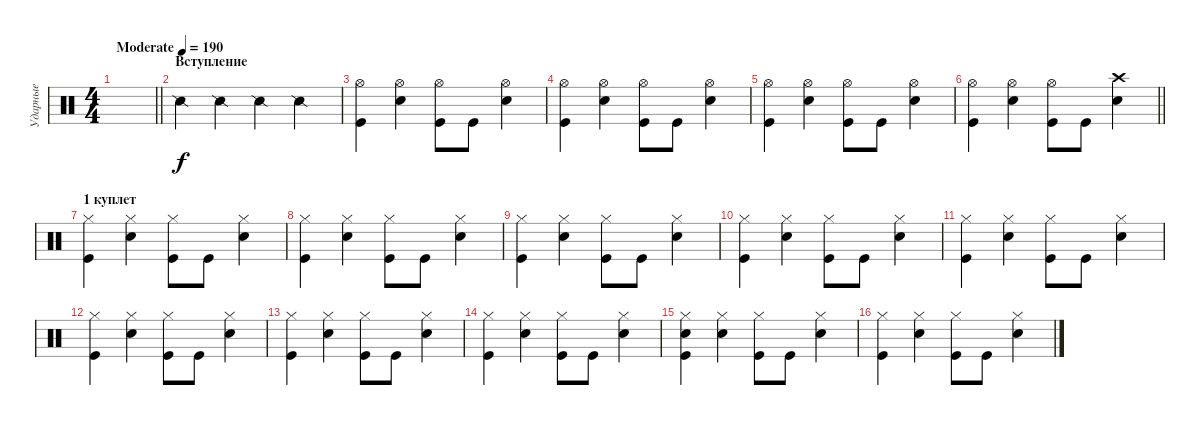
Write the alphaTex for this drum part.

\track ("Ударные" "Ударные") {instrument percussion}
\staff {score}
\articulation defaults
\ts (4 4)
\tempo (190 "Moderate")
\clef neutral
\barLineRight lightlight
\ks c
|
\section ("" "Вступление")
"Snare (side stick) 2".4 "Snare (side stick) 2".4 "Snare (side stick) 2".4 "Snare (side stick) 2".4 |
("Hi-Hat (open)" "Kick (hit)").4 ("Hi-Hat (open)" "Snare (hit) 2").4 ("Hi-Hat (open)" "Kick (hit)").8 "Kick (hit)".8 ("Hi-Hat (open)" "Snare (hit) 2").4 |
("Hi-Hat (open)" "Kick (hit)").4 ("Hi-Hat (open)" "Snare (hit) 2").4 ("Hi-Hat (open)" "Kick (hit)").8 "Kick (hit)".8 ("Hi-Hat (open)" "Snare (hit) 2").4 |
("Hi-Hat (open)" "Kick (hit)").4 ("Hi-Hat (open)" "Snare (hit) 2").4 ("Hi-Hat (open)" "Kick (hit)").8 "Kick (hit)".8 ("Hi-Hat (open)" "Snare (hit) 2").4 |
\barLineRight lightlight
("Hi-Hat (open)" "Kick (hit)").4 ("Hi-Hat (open)" "Snare (hit) 2").4 ("Hi-Hat (open)" "Kick (hit)").8 "Kick (hit)".8 ("Crash high (hit)" "Snare (hit) 2").4 |
\section ("" "1 куплет")
("Hi-Hat (closed)" "Kick (hit)").4 ("Hi-Hat (closed)" "Snare (hit) 2").4 ("Hi-Hat (closed)" "Kick (hit)").8 "Kick (hit)".8 ("Hi-Hat (closed)" "Snare (hit) 2").4 |
("Hi-Hat (closed)" "Kick (hit)").4 ("Hi-Hat (closed)" "Snare (hit) 2").4 ("Hi-Hat (closed)" "Kick (hit)").8 "Kick (hit)".8 ("Hi-Hat (closed)" "Snare (hit) 2").4 |
("Hi-Hat (closed)" "Kick (hit)").4 ("Hi-Hat (closed)" "Snare (hit) 2").4 ("Hi-Hat (closed)" "Kick (hit)").8 "Kick (hit)".8 ("Hi-Hat (closed)" "Snare (hit) 2").4 |
("Hi-Hat (closed)" "Kick (hit)").4 ("Hi-Hat (closed)" "Snare (hit) 2").4 ("Hi-Hat (closed)" "Kick (hit)").8 "Kick (hit)".8 ("Hi-Hat (closed)" "Snare (hit) 2").4 |
("Hi-Hat (closed)" "Kick (hit)").4 ("Hi-Hat (closed)" "Snare (hit) 2").4 ("Hi-Hat (closed)" "Kick (hit)").8 "Kick (hit)".8 ("Hi-Hat (closed)" "Snare (hit) 2").4 |
("Hi-Hat (closed)" "Kick (hit)").4 ("Hi-Hat (closed)" "Snare (hit) 2").4 ("Hi-Hat (closed)" "Kick (hit)").8 "Kick (hit)".8 ("Hi-Hat (closed)" "Snare (hit) 2").4 |
("Hi-Hat (closed)" "Kick (hit)").4 ("Hi-Hat (closed)" "Snare (hit) 2").4 ("Hi-Hat (closed)" "Kick (hit)").8 "Kick (hit)".8 ("Hi-Hat (closed)" "Snare (hit) 2").4 |
("Hi-Hat (closed)" "Kick (hit)").4 ("Hi-Hat (closed)" "Snare (hit) 2").4 ("Hi-Hat (closed)" "Kick (hit)").8 "Kick (hit)".8 ("Hi-Hat (closed)" "Snare (hit) 2").4 |
("Hi-Hat (closed)" "Snare (hit) 2" "Kick (hit)").4 ("Hi-Hat (closed)" "Snare (hit) 2").4 ("Hi-Hat (closed)" "Kick (hit)").8 "Kick (hit)".8 ("Hi-Hat (closed)" "Snare (hit) 2").4 |
("Hi-Hat (closed)" "Kick (hit)").4 ("Hi-Hat (closed)" "Snare (hit) 2").4 ("Hi-Hat (closed)" "Kick (hit)").8 "Kick (hit)".8 ("Hi-Hat (closed)" "Snare (hit) 2").4
